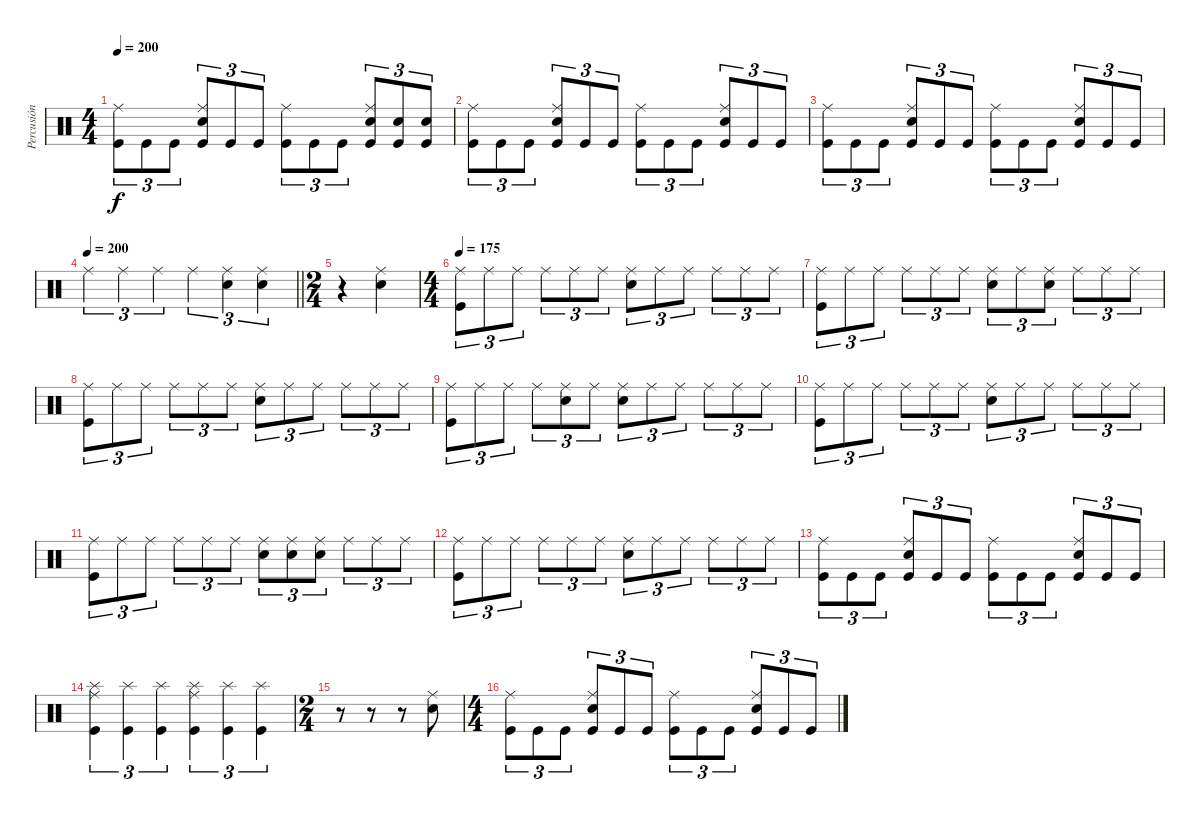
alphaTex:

\track ("Percusión" "Percusión") {instrument percussion}
\staff {score}
\articulation defaults
\ts (4 4)
\tempo 200
\clef neutral
\ks c
("Kick (hit)" "Ride (middle)").8{tu (3 2) dy f} "Kick (hit)".8{tu (3 2)} "Kick (hit)".8{tu (3 2)} ("Kick (hit)" "Electric Snare (hit)" "Ride (middle)").8{tu (3 2)} "Kick (hit)".8{tu (3 2)} "Kick (hit)".8{tu (3 2)} ("Kick (hit)" "Ride (middle)").8{tu (3 2)} "Kick (hit)".8{tu (3 2)} "Kick (hit)".8{tu (3 2)} ("Kick (hit)" "Electric Snare (hit)" "Ride (middle)").8{tu (3 2)} ("Kick (hit)" "Electric Snare (hit)").8{tu (3 2)} ("Kick (hit)" "Electric Snare (hit)").8{tu (3 2)} |
("Kick (hit)" "Ride (middle)").8{tu (3 2)} "Kick (hit)".8{tu (3 2)} "Kick (hit)".8{tu (3 2)} ("Kick (hit)" "Electric Snare (hit)" "Ride (middle)").8{tu (3 2)} "Kick (hit)".8{tu (3 2)} "Kick (hit)".8{tu (3 2)} ("Kick (hit)" "Ride (middle)").8{tu (3 2)} "Kick (hit)".8{tu (3 2)} "Kick (hit)".8{tu (3 2)} ("Kick (hit)" "Electric Snare (hit)" "Ride (middle)").8{tu (3 2)} "Kick (hit)".8{tu (3 2)} "Kick (hit)".8{tu (3 2)} |
("Kick (hit)" "Ride (middle)").8{tu (3 2)} "Kick (hit)".8{tu (3 2)} "Kick (hit)".8{tu (3 2)} ("Kick (hit)" "Electric Snare (hit)" "Ride (middle)").8{tu (3 2)} "Kick (hit)".8{tu (3 2)} "Kick (hit)".8{tu (3 2)} ("Kick (hit)" "Ride (middle)").8{tu (3 2)} "Kick (hit)".8{tu (3 2)} "Kick (hit)".8{tu (3 2)} ("Kick (hit)" "Electric Snare (hit)" "Ride (middle)").8{tu (3 2)} "Kick (hit)".8{tu (3 2)} "Kick (hit)".8{tu (3 2)} |
\tempo 200
\barLineRight lightlight "Ride (middle)".4{tu (3 2)} "Ride (middle)".4{tu (3 2)} "Ride (middle)".4{tu (3 2)} "Ride (middle)".4{tu (3 2)}
("Electric Snare (hit)" "Ride (middle)").4{tu (3 2)} ("Electric Snare (hit)" "Ride (middle)").4{tu (3 2)} |
\ts (2 4)
r.4 ("Electric Snare (hit)" "Ride (middle)").4 |
\ts (4 4)
\tempo 175
("Ride (middle)" "Kick (hit)").8{tu (3 2)} "Ride (middle)".8{tu (3 2)} "Ride (middle)".8{tu (3 2)} "Ride (middle)".8{tu (3 2)} "Ride (middle)".8{tu (3 2)} "Ride (middle)".8{tu (3 2)} ("Ride (middle)" "Electric Snare (hit)").8{tu (3 2)} "Ride (middle)".8{tu (3 2)} "Ride (middle)".8{tu (3 2)} "Ride (middle)".8{tu (3 2)} "Ride (middle)".8{tu (3 2)} "Ride (middle)".8{tu (3 2)} |
("Ride (middle)" "Kick (hit)").8{tu (3 2)} "Ride (middle)".8{tu (3 2)} "Ride (middle)".8{tu (3 2)} "Ride (middle)".8{tu (3 2)} "Ride (middle)".8{tu (3 2)} "Ride (middle)".8{tu (3 2)} ("Ride (middle)" "Electric Snare (hit)").8{tu (3 2)} "Ride (middle)".8{tu (3 2)} ("Ride (middle)" "Electric Snare (hit)").8{tu (3 2)} "Ride (middle)".8{tu (3 2)} "Ride (middle)".8{tu (3 2)} "Ride (middle)".8{tu (3 2)} |
("Ride (middle)" "Kick (hit)").8{tu (3 2)} "Ride (middle)".8{tu (3 2)} "Ride (middle)".8{tu (3 2)} "Ride (middle)".8{tu (3 2)} "Ride (middle)".8{tu (3 2)} "Ride (middle)".8{tu (3 2)} ("Ride (middle)" "Electric Snare (hit)").8{tu (3 2)} "Ride (middle)".8{tu (3 2)} "Ride (middle)".8{tu (3 2)} "Ride (middle)".8{tu (3 2)} "Ride (middle)".8{tu (3 2)} "Ride (middle)".8{tu (3 2)} |
("Ride (middle)" "Kick (hit)").8{tu (3 2)} "Ride (middle)".8{tu (3 2)} "Ride (middle)".8{tu (3 2)} "Ride (middle)".8{tu (3 2)} ("Ride (middle)" "Electric Snare (hit)").8{tu (3 2)} "Ride (middle)".8{tu (3 2)} ("Ride (middle)" "Electric Snare (hit)").8{tu (3 2)} "Ride (middle)".8{tu (3 2)} "Ride (middle)".8{tu (3 2)} "Ride (middle)".8{tu (3 2)} "Ride (middle)".8{tu (3 2)} "Ride (middle)".8{tu (3 2)} |
("Ride (middle)" "Kick (hit)").8{tu (3 2)} "Ride (middle)".8{tu (3 2)} "Ride (middle)".8{tu (3 2)} "Ride (middle)".8{tu (3 2)} "Ride (middle)".8{tu (3 2)} "Ride (middle)".8{tu (3 2)} ("Ride (middle)" "Electric Snare (hit)").8{tu (3 2)} "Ride (middle)".8{tu (3 2)} "Ride (middle)".8{tu (3 2)} "Ride (middle)".8{tu (3 2)} "Ride (middle)".8{tu (3 2)} "Ride (middle)".8{tu (3 2)} |
("Ride (middle)" "Kick (hit)").8{tu (3 2)} "Ride (middle)".8{tu (3 2)} "Ride (middle)".8{tu (3 2)} "Ride (middle)".8{tu (3 2)} "Ride (middle)".8{tu (3 2)} "Ride (middle)".8{tu (3 2)} ("Ride (middle)" "Electric Snare (hit)").8{tu (3 2)} ("Ride (middle)" "Electric Snare (hit)").8{tu (3 2)} ("Ride (middle)" "Electric Snare (hit)").8{tu (3 2)} "Ride (middle)".8{tu (3 2)} "Ride (middle)".8{tu (3 2)} "Ride (middle)".8{tu (3 2)} |
("Ride (middle)" "Kick (hit)").8{tu (3 2)} "Ride (middle)".8{tu (3 2)} "Ride (middle)".8{tu (3 2)} "Ride (middle)".8{tu (3 2)} "Ride (middle)".8{tu (3 2)} "Ride (middle)".8{tu (3 2)} ("Ride (middle)" "Electric Snare (hit)").8{tu (3 2)} "Ride (middle)".8{tu (3 2)} "Ride (middle)".8{tu (3 2)} "Ride (middle)".8{tu (3 2)} "Ride (middle)".8{tu (3 2)} "Ride (middle)".8{tu (3 2)} |
("Kick (hit)" "Ride (middle)").8{tu (3 2)} "Kick (hit)".8{tu (3 2)} "Kick (hit)".8{tu (3 2)} ("Kick (hit)" "Electric Snare (hit)" "Ride (middle)").8{tu (3 2)} "Kick (hit)".8{tu (3 2)} "Kick (hit)".8{tu (3 2)} ("Kick (hit)" "Ride (middle)").8{tu (3 2)} "Kick (hit)".8{tu (3 2)} "Kick (hit)".8{tu (3 2)} ("Kick (hit)" "Electric Snare (hit)" "Ride (middle)").8{tu (3 2)} "Kick (hit)".8{tu (3 2)} "Kick (hit)".8{tu (3 2)} |
("Splash (hit)" "Kick (hit)" "Ride (middle)").4{tu (3 2)} ("Splash (hit)" "Kick (hit)").4{tu (3 2)} ("Splash (hit)" "Kick (hit)").4{tu (3 2)} ("Splash (hit)" "Kick (hit)" "Ride (middle)").4{tu (3 2)} ("Splash (hit)" "Kick (hit)").4{tu (3 2)} ("Splash (hit)" "Kick (hit)").4{tu (3 2)} |
\ts (2 4)
r.8 r.8 r.8 ("Ride (middle)" "Electric Snare (hit)").8 |
\ts (4 4)
("Kick (hit)" "Ride (middle)").8{tu (3 2)} "Kick (hit)".8{tu (3 2)} "Kick (hit)".8{tu (3 2)} ("Kick (hit)" "Electric Snare (hit)" "Ride (middle)").8{tu (3 2)} "Kick (hit)".8{tu (3 2)} "Kick (hit)".8{tu (3 2)} ("Kick (hit)" "Ride (middle)").8{tu (3 2)} "Kick (hit)".8{tu (3 2)} "Kick (hit)".8{tu (3 2)} ("Kick (hit)" "Electric Snare (hit)" "Ride (middle)").8{tu (3 2)} "Kick (hit)".8{tu (3 2)} "Kick (hit)".8{tu (3 2)}
